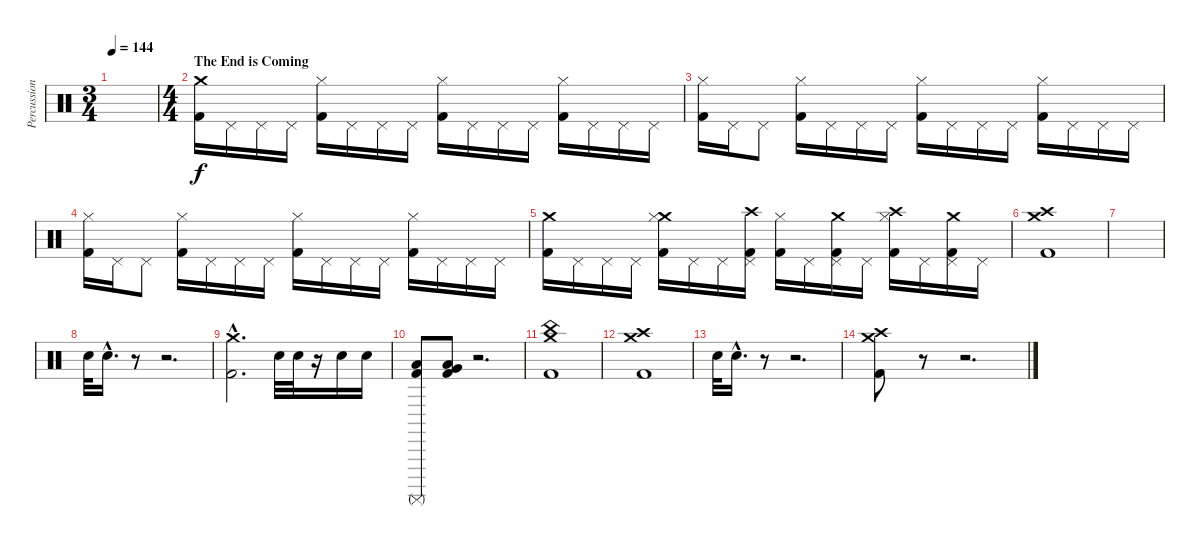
\track ("Percussion" "Percussion") {instrument percussion}
\staff {score}
\articulation defaults
\ts (3 4)
\tempo 144
\clef neutral
\ks c
|
\ts (4 4)
\section ("" "The End is Coming")
("Crash medium (hit)" "Kick (hit) 2").16 "Pedal Hi-Hat (hit)".16 "Pedal Hi-Hat (hit)".16 "Pedal Hi-Hat (hit)".16 ("Hi-Hat (closed)" "Kick (hit) 2").16 "Pedal Hi-Hat (hit)".16 "Pedal Hi-Hat (hit)".16 "Pedal Hi-Hat (hit)".16 ("Hi-Hat (closed)" "Kick (hit) 2").16 "Pedal Hi-Hat (hit)".16 "Pedal Hi-Hat (hit)".16 "Pedal Hi-Hat (hit)".16 ("Hi-Hat (closed)" "Kick (hit) 2").16 "Pedal Hi-Hat (hit)".16 "Pedal Hi-Hat (hit)".16 "Pedal Hi-Hat (hit)".16 |
("Hi-Hat (closed)" "Kick (hit) 2").16 "Pedal Hi-Hat (hit)".16 "Pedal Hi-Hat (hit)".8 ("Hi-Hat (closed)" "Kick (hit) 2").16 "Pedal Hi-Hat (hit)".16 "Pedal Hi-Hat (hit)".16 "Pedal Hi-Hat (hit)".16 ("Hi-Hat (closed)" "Kick (hit) 2").16 "Pedal Hi-Hat (hit)".16 "Pedal Hi-Hat (hit)".16 "Pedal Hi-Hat (hit)".16 ("Hi-Hat (closed)" "Kick (hit) 2").16 "Pedal Hi-Hat (hit)".16 "Pedal Hi-Hat (hit)".16 "Pedal Hi-Hat (hit)".16 |
("Hi-Hat (closed)" "Kick (hit) 2").16 "Pedal Hi-Hat (hit)".16 "Pedal Hi-Hat (hit)".8 ("Hi-Hat (closed)" "Kick (hit) 2").16 "Pedal Hi-Hat (hit)".16 "Pedal Hi-Hat (hit)".16 "Pedal Hi-Hat (hit)".16 ("Hi-Hat (closed)" "Kick (hit) 2").16 "Pedal Hi-Hat (hit)".16 "Pedal Hi-Hat (hit)".16 "Pedal Hi-Hat (hit)".16 ("Hi-Hat (closed)" "Kick (hit) 2").16 "Pedal Hi-Hat (hit)".16 "Pedal Hi-Hat (hit)".16 "Pedal Hi-Hat (hit)".16 |
("Crash medium (hit)" "Kick (hit) 2").16 "Pedal Hi-Hat (hit)".16 "Pedal Hi-Hat (hit)".16 "Pedal Hi-Hat (hit)".16 ("Crash medium (hit)" "Hi-Hat (closed)" "Kick (hit) 2").16 "Pedal Hi-Hat (hit)".16 "Pedal Hi-Hat (hit)".16 ("Crash high (hit)" "Pedal Hi-Hat (hit)" "Kick (hit) 2").16 ("Hi-Hat (closed)" "Kick (hit) 2").16 "Pedal Hi-Hat (hit)".16 ("Crash medium (hit)" "Pedal Hi-Hat (hit)" "Kick (hit) 2").16 "Pedal Hi-Hat (hit)".16 ("Crash high (hit)" "Hi-Hat (closed)" "Kick (hit) 2").16 "Pedal Hi-Hat (hit)".16 ("Crash medium (hit)" "Pedal Hi-Hat (hit)" "Kick (hit) 2").16 "Pedal Hi-Hat (hit)".16 |
("Crash high (hit)" "Crash medium (hit)" "Kick (hit) 2").1 |
|
"Electric Snare (hit)".32 "Electric Snare (hit)"{hac}.16{d} r.8 r.2{d} |
("Crash medium (hit)"{hac} "Kick (hit) 2"{hac}).2{d} "Electric Snare (hit)".32 "Electric Snare (hit)".32 r.16 "Electric Snare (hit)".16 "Electric Snare (hit)".16 |
("Surdo (mute)" "Low Tom (hit)" "Kick (hit) 2").8 ("Very Low Tom (hit)" "Low Tom (hit)" "Kick (hit) 2").8 r.2{d} |
("Crash medium (hit)" "China (hit)" "Kick (hit) 2").1 |
("Crash high (hit)" "Crash medium (hit)" "Kick (hit) 2").1 |
"Electric Snare (hit)".32 "Electric Snare (hit)"{hac}.16{d} r.8 r.2{d} |
("Crash high (hit)" "Crash medium (hit)" "Kick (hit) 2").8 r.8 r.2{d}
